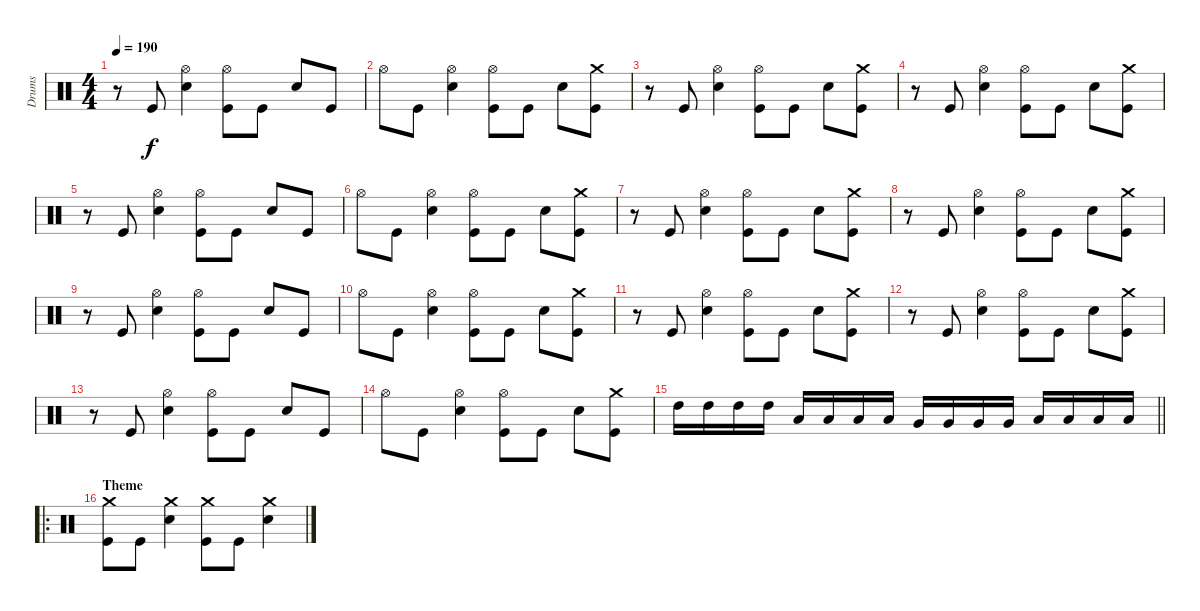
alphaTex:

\track ("Drums" "Drums") {instrument percussion}
\staff {score}
\articulation defaults
\ts (4 4)
\tempo 190
\clef neutral
\ks c
r.8{dy f} "Kick (hit)".8 ("Hi-Hat (open)" "Snare (hit) 2").4 ("Hi-Hat (open)" "Kick (hit)").8 "Kick (hit)".8 "Snare (hit) 2".8 "Kick (hit)".8 |
"Hi-Hat (open)".8 "Kick (hit)".8 ("Hi-Hat (open)" "Snare (hit) 2").4 ("Hi-Hat (open)" "Kick (hit)").8 "Kick (hit)".8 "Snare (hit) 2".8 ("Crash medium (hit)" "Kick (hit)").8 |
r.8 "Kick (hit)".8 ("Hi-Hat (open)" "Snare (hit) 2").4 ("Hi-Hat (open)" "Kick (hit)").8 "Kick (hit)".8 "Snare (hit) 2".8 ("Crash medium (hit)" "Kick (hit)").8 |
r.8 "Kick (hit)".8 ("Hi-Hat (open)" "Snare (hit) 2").4 ("Hi-Hat (open)" "Kick (hit)").8 "Kick (hit)".8 "Snare (hit) 2".8 ("Crash medium (hit)" "Kick (hit)").8 |
r.8 "Kick (hit)".8 ("Hi-Hat (open)" "Snare (hit) 2").4 ("Hi-Hat (open)" "Kick (hit)").8 "Kick (hit)".8 "Snare (hit) 2".8 "Kick (hit)".8 |
"Hi-Hat (open)".8 "Kick (hit)".8 ("Hi-Hat (open)" "Snare (hit) 2").4 ("Hi-Hat (open)" "Kick (hit)").8 "Kick (hit)".8 "Snare (hit) 2".8 ("Crash medium (hit)" "Kick (hit)").8 |
r.8 "Kick (hit)".8 ("Hi-Hat (open)" "Snare (hit) 2").4 ("Hi-Hat (open)" "Kick (hit)").8 "Kick (hit)".8 "Snare (hit) 2".8 ("Crash medium (hit)" "Kick (hit)").8 |
r.8 "Kick (hit)".8 ("Hi-Hat (open)" "Snare (hit) 2").4 ("Hi-Hat (open)" "Kick (hit)").8 "Kick (hit)".8 "Snare (hit) 2".8 ("Crash medium (hit)" "Kick (hit)").8 |
r.8 "Kick (hit)".8 ("Hi-Hat (open)" "Snare (hit) 2").4 ("Hi-Hat (open)" "Kick (hit)").8 "Kick (hit)".8 "Snare (hit) 2".8 "Kick (hit)".8 |
"Hi-Hat (open)".8 "Kick (hit)".8 ("Hi-Hat (open)" "Snare (hit) 2").4 ("Hi-Hat (open)" "Kick (hit)").8 "Kick (hit)".8 "Snare (hit) 2".8 ("Crash medium (hit)" "Kick (hit)").8 |
r.8 "Kick (hit)".8 ("Hi-Hat (open)" "Snare (hit) 2").4 ("Hi-Hat (open)" "Kick (hit)").8 "Kick (hit)".8 "Snare (hit) 2".8 ("Crash medium (hit)" "Kick (hit)").8 |
r.8 "Kick (hit)".8 ("Hi-Hat (open)" "Snare (hit) 2").4 ("Hi-Hat (open)" "Kick (hit)").8 "Kick (hit)".8 "Snare (hit) 2".8 ("Crash medium (hit)" "Kick (hit)").8 |
r.8 "Kick (hit)".8 ("Hi-Hat (open)" "Snare (hit) 2").4 ("Hi-Hat (open)" "Kick (hit)").8 "Kick (hit)".8 "Snare (hit) 2".8 "Kick (hit)".8 |
"Hi-Hat (open)".8 "Kick (hit)".8 ("Hi-Hat (open)" "Snare (hit) 2").4 ("Hi-Hat (open)" "Kick (hit)").8 "Kick (hit)".8 "Snare (hit) 2".8 ("Crash medium (hit)" "Kick (hit)").8 |
\barLineRight lightlight "High Tom (hit)".16 "High Tom (hit)".16 "High Tom (hit)".16 "High Tom (hit)".16 "Low Tom (hit)".16 "Low Tom (hit)".16 "Low Tom (hit)".16 "Low Tom (hit)".16 "Very Low Tom (hit)".16 "Very Low Tom (hit)".16 "Very Low Tom (hit)".16 "Very Low Tom (hit)".16 "Low Floor Tom (hit)".16 "Low Floor Tom (hit)".16 "Low Floor Tom (hit)".16 "Low Floor Tom (hit)".16
|
\ro
\section ("" "Theme")
("Crash medium (hit)" "Kick (hit)").8 "Kick (hit)".8 ("Crash medium (hit)" "Snare (hit) 2").4 ("Crash medium (hit)" "Kick (hit)").8 "Kick (hit)".8 ("Crash medium (hit)" "Snare (hit) 2").4
